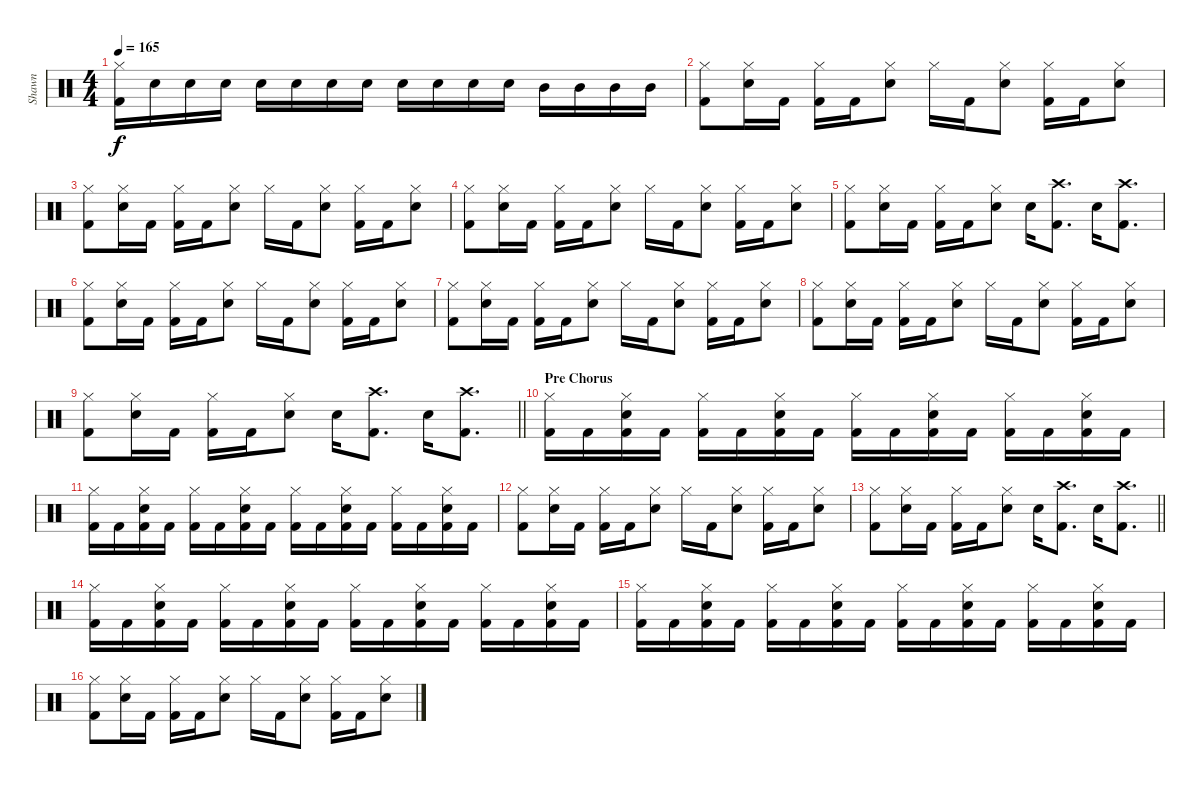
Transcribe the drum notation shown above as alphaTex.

\track ("Shawn" "Shawn") {instrument percussion}
\staff {score}
\articulation defaults
\ts (4 4)
\tempo 165
\clef neutral
\ks c
("Hi-Hat (closed)" "Kick (hit) 2").16{dy f} "Snare (hit) 2".16 "Snare (hit) 2".16 "Snare (hit) 2".16 "Snare (hit) 2".16 "Snare (hit) 2".16 "Snare (hit) 2".16 "Snare (hit) 2".16 "Snare (hit) 2".16 "Snare (hit) 2".16 "Snare (hit) 2".16 "Snare (hit) 2".16 "Mid Tom (hit)".16 "Mid Tom (hit)".16 "Mid Tom (hit)".16 "Mid Tom (hit)".16 |
("Hi-Hat (closed)" "Kick (hit) 2").8 ("Hi-Hat (closed)" "Snare (hit) 2").16 "Kick (hit) 2".16 ("Hi-Hat (closed)" "Kick (hit) 2").16 "Kick (hit) 2".16 ("Hi-Hat (closed)" "Snare (hit) 2").8 "Hi-Hat (closed)".16 "Kick (hit) 2".16 ("Hi-Hat (closed)" "Snare (hit) 2").8 ("Hi-Hat (closed)" "Kick (hit) 2").16 "Kick (hit) 2".16 ("Hi-Hat (closed)" "Snare (hit) 2").8 |
("Hi-Hat (closed)" "Kick (hit) 2").8 ("Hi-Hat (closed)" "Snare (hit) 2").16 "Kick (hit) 2".16 ("Hi-Hat (closed)" "Kick (hit) 2").16 "Kick (hit) 2".16 ("Hi-Hat (closed)" "Snare (hit) 2").8 "Hi-Hat (closed)".16 "Kick (hit) 2".16 ("Hi-Hat (closed)" "Snare (hit) 2").8 ("Hi-Hat (closed)" "Kick (hit) 2").16 "Kick (hit) 2".16 ("Hi-Hat (closed)" "Snare (hit) 2").8 |
("Hi-Hat (closed)" "Kick (hit) 2").8 ("Hi-Hat (closed)" "Snare (hit) 2").16 "Kick (hit) 2".16 ("Hi-Hat (closed)" "Kick (hit) 2").16 "Kick (hit) 2".16 ("Hi-Hat (closed)" "Snare (hit) 2").8 "Hi-Hat (closed)".16 "Kick (hit) 2".16 ("Hi-Hat (closed)" "Snare (hit) 2").8 ("Hi-Hat (closed)" "Kick (hit) 2").16 "Kick (hit) 2".16 ("Hi-Hat (closed)" "Snare (hit) 2").8 |
("Hi-Hat (closed)" "Kick (hit) 2").8 ("Hi-Hat (closed)" "Snare (hit) 2").16 "Kick (hit) 2".16 ("Hi-Hat (closed)" "Kick (hit) 2").16 "Kick (hit) 2".16 ("Hi-Hat (closed)" "Snare (hit) 2").8 "Snare (hit) 2".16 ("Crash high (hit)" "Kick (hit) 2").8{d} "Snare (hit) 2".16 ("Crash high (hit)" "Kick (hit) 2").8{d} |
("Hi-Hat (closed)" "Kick (hit) 2").8 ("Hi-Hat (closed)" "Snare (hit) 2").16 "Kick (hit) 2".16 ("Hi-Hat (closed)" "Kick (hit) 2").16 "Kick (hit) 2".16 ("Hi-Hat (closed)" "Snare (hit) 2").8 "Hi-Hat (closed)".16 "Kick (hit) 2".16 ("Hi-Hat (closed)" "Snare (hit) 2").8 ("Hi-Hat (closed)" "Kick (hit) 2").16 "Kick (hit) 2".16 ("Hi-Hat (closed)" "Snare (hit) 2").8 |
("Hi-Hat (closed)" "Kick (hit) 2").8 ("Hi-Hat (closed)" "Snare (hit) 2").16 "Kick (hit) 2".16 ("Hi-Hat (closed)" "Kick (hit) 2").16 "Kick (hit) 2".16 ("Hi-Hat (closed)" "Snare (hit) 2").8 "Hi-Hat (closed)".16 "Kick (hit) 2".16 ("Hi-Hat (closed)" "Snare (hit) 2").8 ("Hi-Hat (closed)" "Kick (hit) 2").16 "Kick (hit) 2".16 ("Hi-Hat (closed)" "Snare (hit) 2").8 |
("Hi-Hat (closed)" "Kick (hit) 2").8 ("Hi-Hat (closed)" "Snare (hit) 2").16 "Kick (hit) 2".16 ("Hi-Hat (closed)" "Kick (hit) 2").16 "Kick (hit) 2".16 ("Hi-Hat (closed)" "Snare (hit) 2").8 "Hi-Hat (closed)".16 "Kick (hit) 2".16 ("Hi-Hat (closed)" "Snare (hit) 2").8 ("Hi-Hat (closed)" "Kick (hit) 2").16 "Kick (hit) 2".16 ("Hi-Hat (closed)" "Snare (hit) 2").8 |
\barLineRight lightlight
("Hi-Hat (closed)" "Kick (hit) 2").8 ("Hi-Hat (closed)" "Snare (hit) 2").16 "Kick (hit) 2".16 ("Hi-Hat (closed)" "Kick (hit) 2").16 "Kick (hit) 2".16 ("Hi-Hat (closed)" "Snare (hit) 2").8 "Snare (hit) 2".16 ("Crash high (hit)" "Kick (hit) 2").8{d} "Snare (hit) 2".16 ("Crash high (hit)" "Kick (hit) 2").8{d} |
\section ("" "Pre Chorus")
("Hi-Hat (closed)" "Kick (hit) 2").16 "Kick (hit) 2".16 ("Hi-Hat (closed)" "Snare (hit) 2" "Kick (hit) 2").16 "Kick (hit) 2".16 ("Hi-Hat (closed)" "Kick (hit) 2").16 "Kick (hit) 2".16 ("Hi-Hat (closed)" "Snare (hit) 2" "Kick (hit) 2").16 "Kick (hit) 2".16 ("Hi-Hat (closed)" "Kick (hit) 2").16 "Kick (hit) 2".16 ("Hi-Hat (closed)" "Snare (hit) 2" "Kick (hit) 2").16 "Kick (hit) 2".16 ("Hi-Hat (closed)" "Kick (hit) 2").16 "Kick (hit) 2".16 ("Hi-Hat (closed)" "Snare (hit) 2" "Kick (hit) 2").16 "Kick (hit) 2".16 |
("Hi-Hat (closed)" "Kick (hit) 2").16 "Kick (hit) 2".16 ("Hi-Hat (closed)" "Snare (hit) 2" "Kick (hit) 2").16 "Kick (hit) 2".16 ("Hi-Hat (closed)" "Kick (hit) 2").16 "Kick (hit) 2".16 ("Hi-Hat (closed)" "Snare (hit) 2" "Kick (hit) 2").16 "Kick (hit) 2".16 ("Hi-Hat (closed)" "Kick (hit) 2").16 "Kick (hit) 2".16 ("Hi-Hat (closed)" "Snare (hit) 2" "Kick (hit) 2").16 "Kick (hit) 2".16 ("Hi-Hat (closed)" "Kick (hit) 2").16 "Kick (hit) 2".16 ("Hi-Hat (closed)" "Snare (hit) 2" "Kick (hit) 2").16 "Kick (hit) 2".16 |
("Hi-Hat (closed)" "Kick (hit) 2").8 ("Hi-Hat (closed)" "Snare (hit) 2").16 "Kick (hit) 2".16 ("Hi-Hat (closed)" "Kick (hit) 2").16 "Kick (hit) 2".16 ("Hi-Hat (closed)" "Snare (hit) 2").8 "Hi-Hat (closed)".16 "Kick (hit) 2".16 ("Hi-Hat (closed)" "Snare (hit) 2").8 ("Hi-Hat (closed)" "Kick (hit) 2").16 "Kick (hit) 2".16 ("Hi-Hat (closed)" "Snare (hit) 2").8 |
\barLineRight lightlight
("Hi-Hat (closed)" "Kick (hit) 2").8 ("Hi-Hat (closed)" "Snare (hit) 2").16 "Kick (hit) 2".16 ("Hi-Hat (closed)" "Kick (hit) 2").16 "Kick (hit) 2".16 ("Hi-Hat (closed)" "Snare (hit) 2").8 "Snare (hit) 2".16 ("Crash high (hit)" "Kick (hit) 2").8{d} "Snare (hit) 2".16 ("Crash high (hit)" "Kick (hit) 2").8{d} |
("Hi-Hat (closed)" "Kick (hit) 2").16 "Kick (hit) 2".16 ("Hi-Hat (closed)" "Snare (hit) 2" "Kick (hit) 2").16 "Kick (hit) 2".16 ("Hi-Hat (closed)" "Kick (hit) 2").16 "Kick (hit) 2".16 ("Hi-Hat (closed)" "Snare (hit) 2" "Kick (hit) 2").16 "Kick (hit) 2".16 ("Hi-Hat (closed)" "Kick (hit) 2").16 "Kick (hit) 2".16 ("Hi-Hat (closed)" "Snare (hit) 2" "Kick (hit) 2").16 "Kick (hit) 2".16 ("Hi-Hat (closed)" "Kick (hit) 2").16 "Kick (hit) 2".16 ("Hi-Hat (closed)" "Snare (hit) 2" "Kick (hit) 2").16 "Kick (hit) 2".16 |
("Hi-Hat (closed)" "Kick (hit) 2").16 "Kick (hit) 2".16 ("Hi-Hat (closed)" "Snare (hit) 2" "Kick (hit) 2").16 "Kick (hit) 2".16 ("Hi-Hat (closed)" "Kick (hit) 2").16 "Kick (hit) 2".16 ("Hi-Hat (closed)" "Snare (hit) 2" "Kick (hit) 2").16 "Kick (hit) 2".16 ("Hi-Hat (closed)" "Kick (hit) 2").16 "Kick (hit) 2".16 ("Hi-Hat (closed)" "Snare (hit) 2" "Kick (hit) 2").16 "Kick (hit) 2".16 ("Hi-Hat (closed)" "Kick (hit) 2").16 "Kick (hit) 2".16 ("Hi-Hat (closed)" "Snare (hit) 2" "Kick (hit) 2").16 "Kick (hit) 2".16 |
("Hi-Hat (closed)" "Kick (hit) 2").8 ("Hi-Hat (closed)" "Snare (hit) 2").16 "Kick (hit) 2".16 ("Hi-Hat (closed)" "Kick (hit) 2").16 "Kick (hit) 2".16 ("Hi-Hat (closed)" "Snare (hit) 2").8 "Hi-Hat (closed)".16 "Kick (hit) 2".16 ("Hi-Hat (closed)" "Snare (hit) 2").8 ("Hi-Hat (closed)" "Kick (hit) 2").16 "Kick (hit) 2".16 ("Hi-Hat (closed)" "Snare (hit) 2").8
